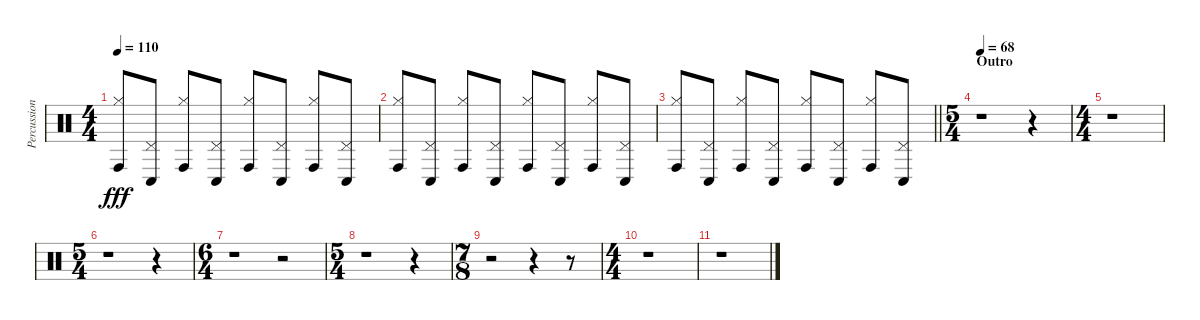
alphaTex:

\track ("Percussion" "Percussion") {instrument percussion}
\staff {score}
\articulation defaults
\ts (4 4)
\tempo 110
\clef neutral
\ks c
("Hi-Hat (closed)" "Conga high (hit)").8{dy fff} ("Pedal Hi-Hat (hit)" "Conga low (hit)").8 ("Hi-Hat (closed)" "Conga high (hit)").8 ("Pedal Hi-Hat (hit)" "Conga low (hit)").8 ("Hi-Hat (closed)" "Conga high (hit)").8 ("Pedal Hi-Hat (hit)" "Conga low (hit)").8 ("Hi-Hat (closed)" "Conga high (hit)").8 ("Pedal Hi-Hat (hit)" "Conga low (hit)").8 |
("Hi-Hat (closed)" "Conga high (hit)").8 ("Pedal Hi-Hat (hit)" "Conga low (hit)").8 ("Hi-Hat (closed)" "Conga high (hit)").8 ("Pedal Hi-Hat (hit)" "Conga low (hit)").8 ("Hi-Hat (closed)" "Conga high (hit)").8 ("Pedal Hi-Hat (hit)" "Conga low (hit)").8 ("Hi-Hat (closed)" "Conga high (hit)").8 ("Pedal Hi-Hat (hit)" "Conga low (hit)").8 |
\barLineRight lightlight
("Hi-Hat (closed)" "Conga high (hit)").8 ("Pedal Hi-Hat (hit)" "Conga low (hit)").8 ("Hi-Hat (closed)" "Conga high (hit)").8 ("Pedal Hi-Hat (hit)" "Conga low (hit)").8 ("Hi-Hat (closed)" "Conga high (hit)").8 ("Pedal Hi-Hat (hit)" "Conga low (hit)").8 ("Hi-Hat (closed)" "Conga high (hit)").8 ("Pedal Hi-Hat (hit)" "Conga low (hit)").8 |
\ts (5 4)
\section ("" "Outro")
\tempo 68
r.1 r.4 |
\ts (4 4)
r.1 |
\ts (5 4)
r.1 r.4 |
\ts (6 4)
r.1 r.2 |
\ts (5 4)
r.1 r.4 |
\ts (7 8)
r.2 r.4 r.8 |
\ts (4 4)
r.1 |
r.1
